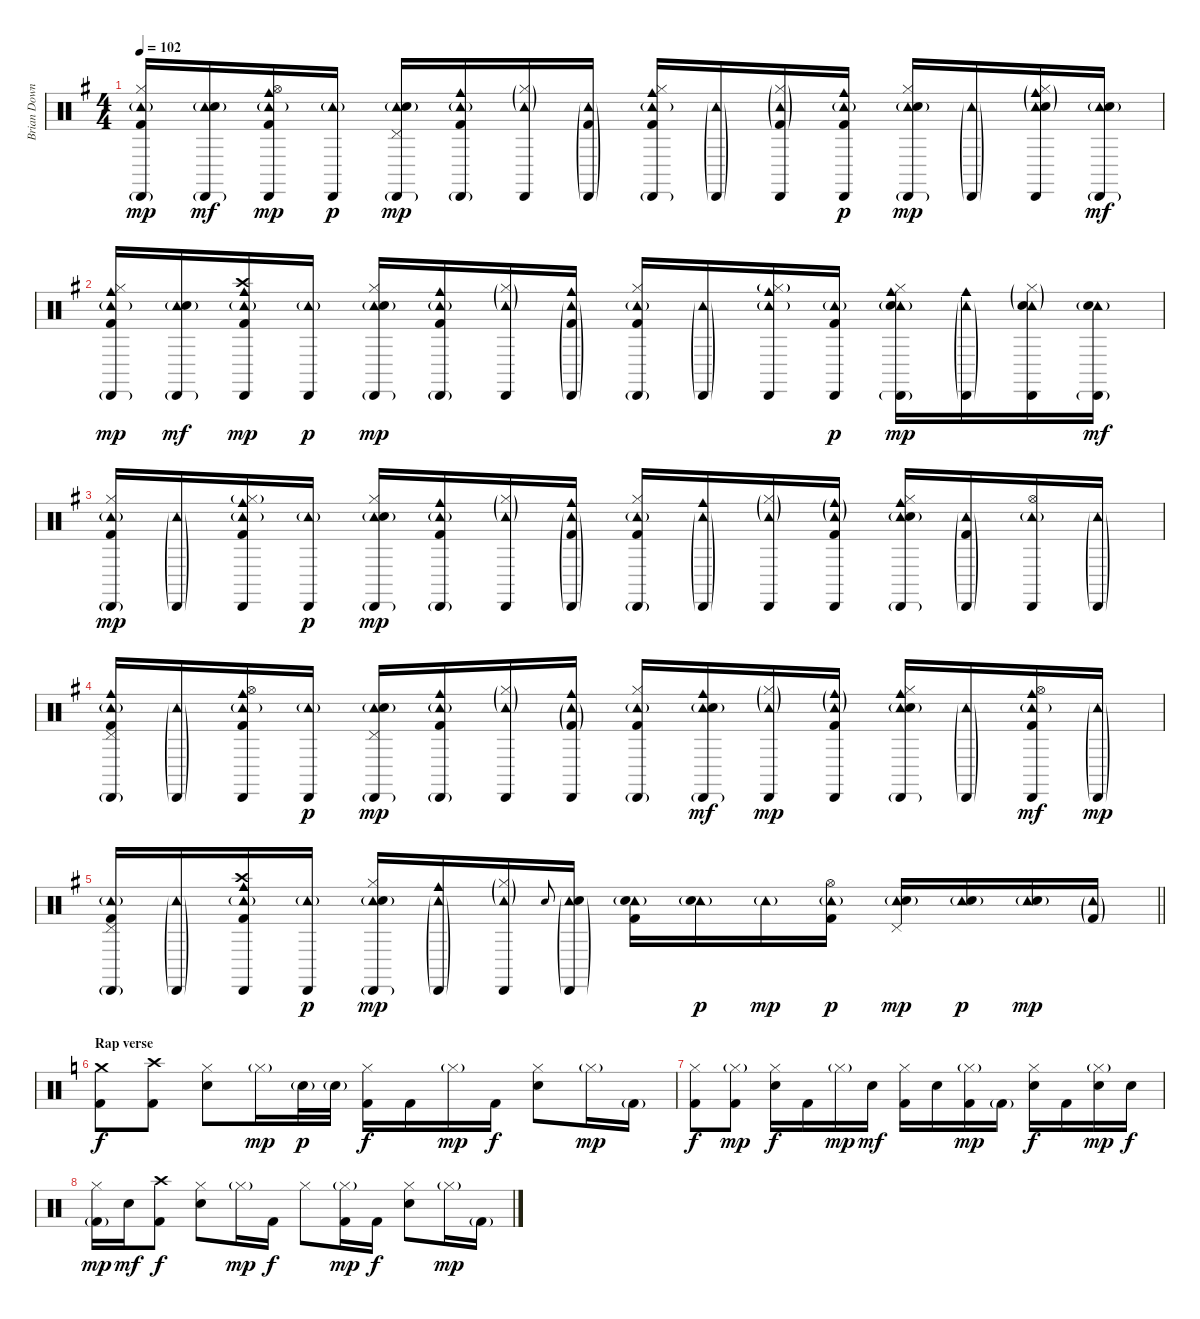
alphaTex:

\track ("Brian Downey" "Brian Down") {instrument percussion}
\staff {score}
\articulation defaults
\ts (4 4)
\tempo 102
\clef neutral
\ks eminor
("Hi-Hat (closed)" "Tambourine (hit)"{g} "Cabasa (hit)"{g} "Kick (hit) 2").16{dy mp} ("Tambourine (hit)"{g} "Cabasa (hit)"{g} "Electric Snare (hit)").16{dy mf} ("Hi-Hat (open)" "Tambourine (hit)"{g} "Cowbell medium (hit)" "Cabasa (hit)" "Kick (hit) 2").16{dy mp} ("Tambourine (hit)"{g} "Cabasa (hit)").16{dy p} ("Pedal Hi-Hat (hit)" "Tambourine (hit)"{g} "Cabasa (hit)"{g} "Electric Snare (hit)").16{dy mp} ("Tambourine (hit)"{g} "Cowbell medium (hit)" "Cabasa (hit)"{g} "Kick (hit) 2").16 ("Hi-Hat (closed)"{g} "Tambourine (hit)"{g} "Cabasa (hit)").16 ("Tambourine (hit)"{g} "Cabasa (hit)"{g} "Kick (hit) 2"{g}).16 ("Hi-Hat (closed)" "Tambourine (hit)"{g} "Cowbell medium (hit)" "Cabasa (hit)"{g} "Kick (hit) 2").16 ("Tambourine (hit)"{g} "Cabasa (hit)"{g}).16 ("Hi-Hat (closed)"{g} "Tambourine (hit)"{g} "Cabasa (hit)" "Kick (hit) 2"{g}).16 ("Tambourine (hit)"{g} "Cowbell medium (hit)" "Cabasa (hit)" "Kick (hit) 2").16{dy p} ("Hi-Hat (closed)" "Tambourine (hit)"{g} "Cabasa (hit)"{g} "Electric Snare (hit)").16{dy mp} ("Tambourine (hit)"{g} "Cabasa (hit)"{g}).16 ("Hi-Hat (closed)"{g} "Tambourine (hit)"{g} "Cowbell medium (hit)"{g} "Cabasa (hit)" "Electric Snare (hit)").16 ("Tambourine (hit)"{g} "Cabasa (hit)"{g} "Electric Snare (hit)").16{dy mf} |
("Hi-Hat (closed)" "Tambourine (hit)"{g} "Cowbell medium (hit)" "Cabasa (hit)"{g} "Kick (hit) 2").16{dy mp} ("Tambourine (hit)"{g} "Cabasa (hit)"{g} "Electric Snare (hit)").16{dy mf} ("Crash high (hit)" "Tambourine (hit)"{g} "Cowbell medium (hit)" "Cabasa (hit)" "Kick (hit) 2").16{dy mp} ("Tambourine (hit)"{g} "Cabasa (hit)").16{dy p} ("Hi-Hat (closed)" "Tambourine (hit)"{g} "Cabasa (hit)"{g} "Electric Snare (hit)").16{dy mp} ("Tambourine (hit)"{g} "Cowbell medium (hit)" "Cabasa (hit)"{g} "Kick (hit) 2").16 ("Hi-Hat (closed)"{g} "Tambourine (hit)"{g} "Cabasa (hit)").16 ("Tambourine (hit)"{g} "Cowbell medium (hit)" "Cabasa (hit)"{g} "Kick (hit) 2"{g}).16 ("Hi-Hat (closed)" "Tambourine (hit)"{g} "Cabasa (hit)"{g} "Kick (hit) 2").16 ("Tambourine (hit)"{g} "Cabasa (hit)"{g}).16 ("Hi-Hat (closed)"{g} "Tambourine (hit)"{g} "Cowbell medium (hit)" "Cabasa (hit)").16 ("Tambourine (hit)"{g} "Cabasa (hit)" "Kick (hit) 2").16{dy p} ("Hi-Hat (closed)" "Tambourine (hit)"{g} "Cowbell medium (hit)" "Cabasa (hit)"{g} "Electric Snare (hit)").16{dy mp} ("Tambourine (hit)"{g} "Cowbell medium (hit)" "Cabasa (hit)"{g}).16 ("Hi-Hat (closed)"{g} "Tambourine (hit)"{g} "Cabasa (hit)" "Electric Snare (hit)").16 ("Tambourine (hit)"{g} "Cabasa (hit)"{g} "Electric Snare (hit)").16{dy mf} |
("Hi-Hat (closed)" "Tambourine (hit)"{g} "Cabasa (hit)"{g} "Kick (hit) 2").16{dy mp} ("Tambourine (hit)"{g} "Cabasa (hit)"{g}).16 ("Hi-Hat (closed)"{g} "Tambourine (hit)"{g} "Cowbell medium (hit)" "Cabasa (hit)" "Kick (hit) 2").16 ("Tambourine (hit)"{g} "Cabasa (hit)").16{dy p} ("Hi-Hat (closed)" "Tambourine (hit)"{g} "Cabasa (hit)"{g} "Electric Snare (hit)").16{dy mp} ("Tambourine (hit)"{g} "Cowbell medium (hit)" "Cabasa (hit)"{g} "Kick (hit) 2").16 ("Hi-Hat (closed)"{g} "Tambourine (hit)"{g} "Cabasa (hit)").16 ("Tambourine (hit)"{g} "Cowbell medium (hit)" "Cabasa (hit)"{g} "Kick (hit) 2"{g}).16 ("Hi-Hat (closed)" "Tambourine (hit)"{g} "Cabasa (hit)"{g} "Kick (hit) 2").16 ("Tambourine (hit)"{g} "Cowbell medium (hit)" "Cabasa (hit)"{g}).16 ("Hi-Hat (closed)"{g} "Tambourine (hit)"{g} "Cabasa (hit)").16 ("Tambourine (hit)"{g} "Cowbell medium (hit)"{g} "Cabasa (hit)" "Kick (hit) 2").16 ("Hi-Hat (closed)" "Tambourine (hit)"{g} "Cowbell medium (hit)" "Cabasa (hit)"{g} "Electric Snare (hit)").16 ("Tambourine (hit)"{g} "Cabasa (hit)"{g} "Kick (hit) 2"{g}).16 ("Hi-Hat (open)" "Tambourine (hit)"{g} "Cabasa (hit)").16 ("Tambourine (hit)"{g} "Cabasa (hit)"{g}).16 |
("Pedal Hi-Hat (hit)" "Tambourine (hit)"{g} "Cowbell medium (hit)" "Cabasa (hit)"{g} "Kick (hit) 2").16 ("Tambourine (hit)"{g} "Cabasa (hit)"{g}).16 ("Hi-Hat (open)" "Tambourine (hit)"{g} "Cowbell medium (hit)" "Cabasa (hit)" "Kick (hit) 2").16 ("Tambourine (hit)"{g} "Cabasa (hit)").16{dy p} ("Pedal Hi-Hat (hit)" "Tambourine (hit)"{g} "Cabasa (hit)"{g} "Electric Snare (hit)").16{dy mp} ("Tambourine (hit)"{g} "Cowbell medium (hit)" "Cabasa (hit)"{g} "Kick (hit) 2").16 ("Hi-Hat (closed)"{g} "Tambourine (hit)"{g} "Cabasa (hit)").16 ("Tambourine (hit)"{g} "Cowbell medium (hit)" "Cabasa (hit)" "Kick (hit) 2"{g}).16 ("Hi-Hat (closed)" "Tambourine (hit)"{g} "Cabasa (hit)"{g} "Kick (hit) 2").16 ("Tambourine (hit)"{g} "Cowbell medium (hit)" "Cabasa (hit)"{g} "Electric Snare (hit)").16{dy mf} ("Hi-Hat (closed)"{g} "Tambourine (hit)"{g} "Cabasa (hit)").16{dy mp} ("Tambourine (hit)"{g} "Cowbell medium (hit)"{g} "Cabasa (hit)" "Kick (hit) 2").16 ("Hi-Hat (closed)" "Tambourine (hit)"{g} "Cowbell medium (hit)" "Cabasa (hit)"{g} "Electric Snare (hit)").16 ("Tambourine (hit)"{g} "Cabasa (hit)"{g}).16 ("Hi-Hat (open)" "Tambourine (hit)"{g} "Cowbell medium (hit)" "Cabasa (hit)" "Kick (hit) 2").16{dy mf} ("Tambourine (hit)"{g} "Cabasa (hit)"{g}).16{dy mp} |
\barLineRight lightlight
("Pedal Hi-Hat (hit)" "Tambourine (hit)"{g} "Cabasa (hit)"{g} "Kick (hit) 2").16 ("Tambourine (hit)"{g} "Cabasa (hit)"{g}).16 ("Crash high (hit)" "Tambourine (hit)"{g} "Cowbell medium (hit)" "Cabasa (hit)" "Kick (hit) 2").16 ("Tambourine (hit)"{g} "Cabasa (hit)").16{dy p} ("Hi-Hat (closed)" "Tambourine (hit)"{g} "Cabasa (hit)"{g} "Electric Snare (hit)").16{dy mp} ("Tambourine (hit)"{g} "Cowbell medium (hit)" "Cabasa (hit)"{g}).16 ("Hi-Hat (closed)"{g} "Tambourine (hit)"{g} "Cabasa (hit)").16 "Electric Snare (hit)".8{gr onbeat} ("Tambourine (hit)"{g} "Cabasa (hit)"{g} "Electric Snare (hit)"{g}).16 ("Tambourine (hit)"{g} "Electric Snare (hit)" "Kick (hit) 2").16 ("Tambourine (hit)"{g} "Electric Snare (hit)").16{dy p} "Tambourine (hit)"{g}.16{dy mp} ("Hi-Hat (open)" "Tambourine (hit)"{g} "Kick (hit) 2").16{dy p} ("Pedal Hi-Hat (hit)" "Tambourine (hit)"{g} "Electric Snare (hit)").16{dy mp} ("Tambourine (hit)"{g} "Electric Snare (hit)").16{dy p} ("Tambourine (hit)"{g} "Electric Snare (hit)").16{dy mp} ("Tambourine (hit)"{g} "Kick (hit) 2"{g}).16 |
\section ("" "Rap verse")
\ks aminor
("Crash medium (hit)" "Kick (hit) 2").8{dy f} ("Crash high (hit)" "Kick (hit) 2").8 ("Hi-Hat (closed)" "Electric Snare (hit)").8 "Hi-Hat (closed)"{g}.16{dy mp} "Electric Snare (hit)"{g}.32{dy p} "Electric Snare (hit)"{g}.32 ("Hi-Hat (closed)" "Kick (hit) 2").16{dy f} "Kick (hit) 2".16 "Hi-Hat (closed)"{g}.16{dy mp} "Kick (hit) 2".16{dy f} ("Hi-Hat (closed)" "Electric Snare (hit)").8 "Hi-Hat (closed)"{g}.16{dy mp} "Kick (hit) 2"{g}.16 |
("Hi-Hat (closed)" "Kick (hit) 2").8{dy f} ("Hi-Hat (closed)"{g} "Kick (hit) 2").8{dy mp} ("Hi-Hat (closed)" "Electric Snare (hit)").16{dy f} "Kick (hit) 2".16 "Hi-Hat (closed)"{g}.16{dy mp} "Electric Snare (hit)".16{dy mf} ("Hi-Hat (closed)" "Kick (hit) 2").16 "Electric Snare (hit)".16 ("Hi-Hat (closed)"{g} "Kick (hit) 2").16{dy mp} "Kick (hit) 2"{g}.16 ("Hi-Hat (closed)" "Electric Snare (hit)").16{dy f} "Kick (hit) 2".16 ("Hi-Hat (closed)"{g} "Electric Snare (hit)").16{dy mp} "Electric Snare (hit)".16{dy f} |
("Hi-Hat (closed)" "Kick (hit) 2"{g}).16{dy mp} "Electric Snare (hit)".16{dy mf} ("Crash high (hit)" "Kick (hit) 2").8{dy f} ("Hi-Hat (closed)" "Electric Snare (hit)").8 "Hi-Hat (closed)"{g}.16{dy mp} "Kick (hit) 2".16{dy f} "Hi-Hat (closed)".8 ("Hi-Hat (closed)"{g} "Kick (hit) 2").16{dy mp} "Kick (hit) 2".16{dy f} ("Hi-Hat (closed)" "Electric Snare (hit)").8 "Hi-Hat (closed)"{g}.16{dy mp} "Kick (hit) 2"{g}.16
